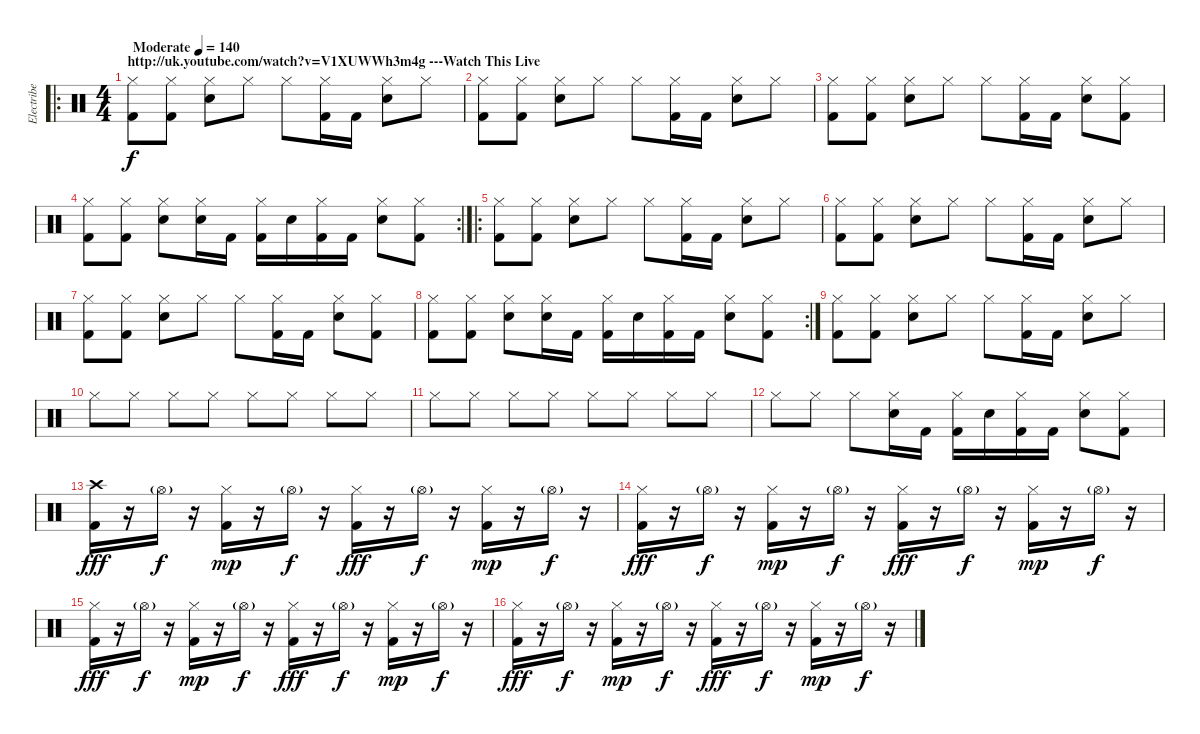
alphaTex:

\track ("Electribe Beat" "Electribe ") {instrument percussion}
\staff {score}
\articulation defaults
\ro
\ts (4 4)
\section ("" "http://uk.youtube.com/watch?v=V1XUWWh3m4g ---Watch This Live")
\tempo (140 "Moderate")
\clef neutral
\ks c
("Hi-Hat (closed)" "Kick (hit) 2").8{dy f} ("Hi-Hat (closed)" "Kick (hit) 2").8 ("Hi-Hat (closed)" "Electric Snare (hit)").8 "Hi-Hat (closed)".8 "Hi-Hat (closed)".8 ("Hi-Hat (closed)" "Kick (hit) 2").16 "Kick (hit) 2".16 ("Hi-Hat (closed)" "Electric Snare (hit)").8 "Hi-Hat (closed)".8 |
("Hi-Hat (closed)" "Kick (hit) 2").8 ("Hi-Hat (closed)" "Kick (hit) 2").8 ("Hi-Hat (closed)" "Electric Snare (hit)").8 "Hi-Hat (closed)".8 "Hi-Hat (closed)".8 ("Hi-Hat (closed)" "Kick (hit) 2").16 "Kick (hit) 2".16 ("Hi-Hat (closed)" "Electric Snare (hit)").8 "Hi-Hat (closed)".8 |
("Hi-Hat (closed)" "Kick (hit) 2").8 ("Hi-Hat (closed)" "Kick (hit) 2").8 ("Hi-Hat (closed)" "Electric Snare (hit)").8 "Hi-Hat (closed)".8 "Hi-Hat (closed)".8 ("Hi-Hat (closed)" "Kick (hit) 2").16 "Kick (hit) 2".16 ("Hi-Hat (closed)" "Electric Snare (hit)").8 ("Hi-Hat (closed)" "Kick (hit) 2").8 |
\rc 2
("Hi-Hat (closed)" "Kick (hit) 2").8 ("Hi-Hat (closed)" "Kick (hit) 2").8 ("Hi-Hat (closed)" "Electric Snare (hit)").8 ("Hi-Hat (closed)" "Electric Snare (hit)").16 "Kick (hit) 2".16 ("Hi-Hat (closed)" "Kick (hit) 2").16 "Electric Snare (hit)".16 ("Hi-Hat (closed)" "Kick (hit) 2").16 "Kick (hit) 2".16 ("Hi-Hat (closed)" "Electric Snare (hit)").8 ("Hi-Hat (closed)" "Kick (hit) 2").8 |
\ro
("Hi-Hat (closed)" "Kick (hit) 2").8 ("Hi-Hat (closed)" "Kick (hit) 2").8 ("Hi-Hat (closed)" "Electric Snare (hit)").8 "Hi-Hat (closed)".8 "Hi-Hat (closed)".8 ("Hi-Hat (closed)" "Kick (hit) 2").16 "Kick (hit) 2".16 ("Hi-Hat (closed)" "Electric Snare (hit)").8 "Hi-Hat (closed)".8 |
("Hi-Hat (closed)" "Kick (hit) 2").8 ("Hi-Hat (closed)" "Kick (hit) 2").8 ("Hi-Hat (closed)" "Electric Snare (hit)").8 "Hi-Hat (closed)".8 "Hi-Hat (closed)".8 ("Hi-Hat (closed)" "Kick (hit) 2").16 "Kick (hit) 2".16 ("Hi-Hat (closed)" "Electric Snare (hit)").8 "Hi-Hat (closed)".8 |
("Hi-Hat (closed)" "Kick (hit) 2").8 ("Hi-Hat (closed)" "Kick (hit) 2").8 ("Hi-Hat (closed)" "Electric Snare (hit)").8 "Hi-Hat (closed)".8 "Hi-Hat (closed)".8 ("Hi-Hat (closed)" "Kick (hit) 2").16 "Kick (hit) 2".16 ("Hi-Hat (closed)" "Electric Snare (hit)").8 ("Hi-Hat (closed)" "Kick (hit) 2").8 |
\rc 2
("Hi-Hat (closed)" "Kick (hit) 2").8 ("Hi-Hat (closed)" "Kick (hit) 2").8 ("Hi-Hat (closed)" "Electric Snare (hit)").8 ("Hi-Hat (closed)" "Electric Snare (hit)").16 "Kick (hit) 2".16 ("Hi-Hat (closed)" "Kick (hit) 2").16 "Electric Snare (hit)".16 ("Hi-Hat (closed)" "Kick (hit) 2").16 "Kick (hit) 2".16 ("Hi-Hat (closed)" "Electric Snare (hit)").8 ("Hi-Hat (closed)" "Kick (hit) 2").8 |
("Hi-Hat (closed)" "Kick (hit) 2").8 ("Hi-Hat (closed)" "Kick (hit) 2").8 ("Hi-Hat (closed)" "Electric Snare (hit)").8 "Hi-Hat (closed)".8 "Hi-Hat (closed)".8 ("Hi-Hat (closed)" "Kick (hit) 2").16 "Kick (hit) 2".16 ("Hi-Hat (closed)" "Electric Snare (hit)").8 "Hi-Hat (closed)".8 |
"Hi-Hat (closed)".8 "Hi-Hat (closed)".8 "Hi-Hat (closed)".8 "Hi-Hat (closed)".8 "Hi-Hat (closed)".8 "Hi-Hat (closed)".8 "Hi-Hat (closed)".8 "Hi-Hat (closed)".8 |
"Hi-Hat (closed)".8 "Hi-Hat (closed)".8 "Hi-Hat (closed)".8 "Hi-Hat (closed)".8 "Hi-Hat (closed)".8 "Hi-Hat (closed)".8 "Hi-Hat (closed)".8 "Hi-Hat (closed)".8 |
"Hi-Hat (closed)".8 "Hi-Hat (closed)".8 "Hi-Hat (closed)".8 ("Hi-Hat (closed)" "Electric Snare (hit)").16 "Kick (hit) 2".16 ("Hi-Hat (closed)" "Kick (hit) 2").16 "Electric Snare (hit)".16 ("Hi-Hat (closed)" "Kick (hit) 2").16 "Kick (hit) 2".16 ("Hi-Hat (closed)" "Electric Snare (hit)").8 ("Hi-Hat (closed)" "Kick (hit) 2").8 |
("Crash high (hit)" "Kick (hit) 2").16{dy fff} r.16 "Hi-Hat (open)"{g}.16{dy f} r.16 ("Hi-Hat (closed)" "Kick (hit) 2").16{dy mp} r.16 "Hi-Hat (open)"{g}.16{dy f} r.16 ("Hi-Hat (closed)" "Kick (hit) 2").16{dy fff} r.16 "Hi-Hat (open)"{g}.16{dy f} r.16 ("Hi-Hat (closed)" "Kick (hit) 2").16{dy mp} r.16 "Hi-Hat (open)"{g}.16{dy f} r.16 |
("Hi-Hat (closed)" "Kick (hit) 2").16{dy fff} r.16 "Hi-Hat (open)"{g}.16{dy f} r.16 ("Hi-Hat (closed)" "Kick (hit) 2").16{dy mp} r.16 "Hi-Hat (open)"{g}.16{dy f} r.16 ("Hi-Hat (closed)" "Kick (hit) 2").16{dy fff} r.16 "Hi-Hat (open)"{g}.16{dy f} r.16 ("Hi-Hat (closed)" "Kick (hit) 2").16{dy mp} r.16 "Hi-Hat (open)"{g}.16{dy f} r.16 |
("Hi-Hat (closed)" "Kick (hit) 2").16{dy fff} r.16 "Hi-Hat (open)"{g}.16{dy f} r.16 ("Hi-Hat (closed)" "Kick (hit) 2").16{dy mp} r.16 "Hi-Hat (open)"{g}.16{dy f} r.16 ("Hi-Hat (closed)" "Kick (hit) 2").16{dy fff} r.16 "Hi-Hat (open)"{g}.16{dy f} r.16 ("Hi-Hat (closed)" "Kick (hit) 2").16{dy mp} r.16 "Hi-Hat (open)"{g}.16{dy f} r.16 |
("Hi-Hat (closed)" "Kick (hit) 2").16{dy fff} r.16 "Hi-Hat (open)"{g}.16{dy f} r.16 ("Hi-Hat (closed)" "Kick (hit) 2").16{dy mp} r.16 "Hi-Hat (open)"{g}.16{dy f} r.16 ("Hi-Hat (closed)" "Kick (hit) 2").16{dy fff} r.16 "Hi-Hat (open)"{g}.16{dy f} r.16 ("Hi-Hat (closed)" "Kick (hit) 2").16{dy mp} r.16 "Hi-Hat (open)"{g}.16{dy f} r.16
